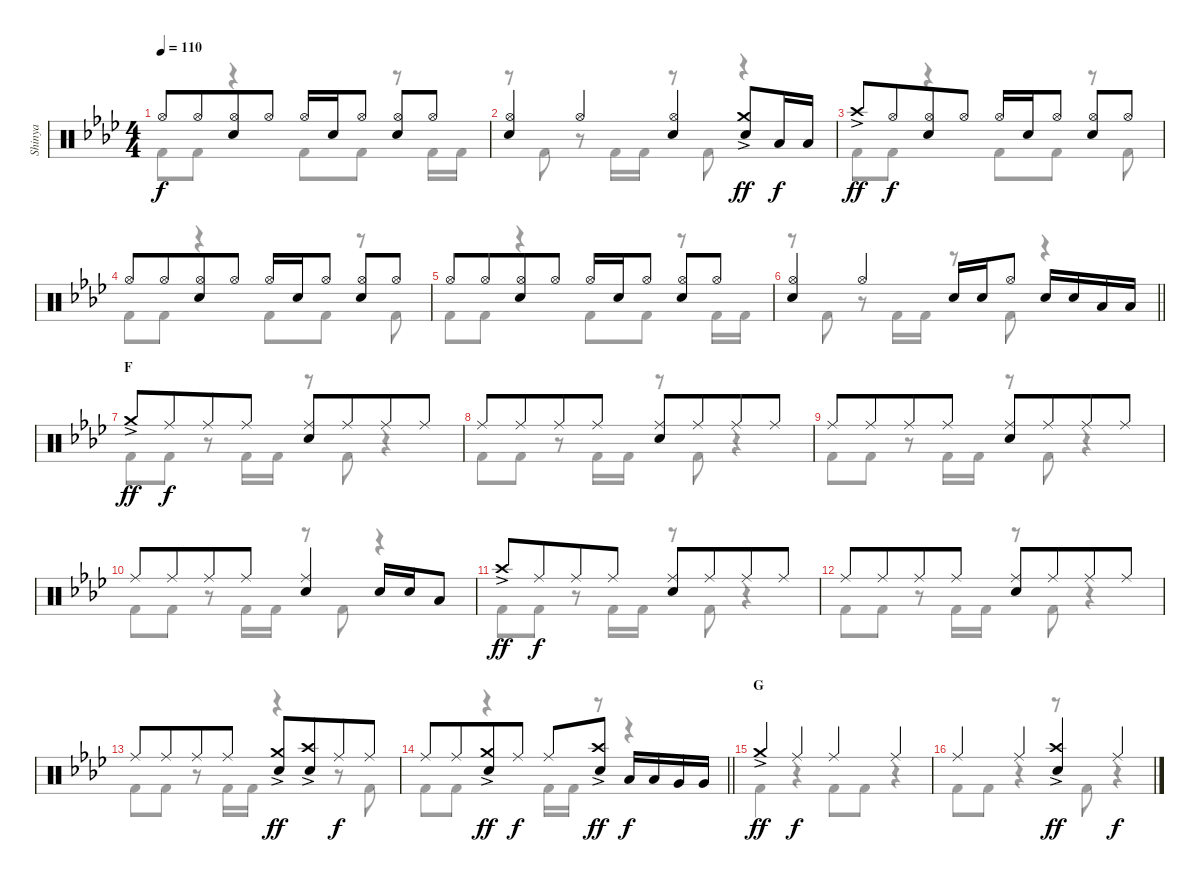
\track ("Shinya" "Shinya") {instrument percussion}
\staff {score}
\articulation defaults
\voice
\ts (4 4)
\tempo 110
\clef neutral
\ks fminor "Hi-Hat (open)".8{dy f} "Hi-Hat (open)".8{beam merge}
("Hi-Hat (open)" "Snare (hit) 2").8 "Hi-Hat (open)".8 "Hi-Hat (open)".16 "Snare (hit) 2".16 "Hi-Hat (open)".8 ("Hi-Hat (open)" "Snare (hit) 2").8 "Hi-Hat (open)".8 |
("Hi-Hat (open)" "Snare (hit) 2").4 "Hi-Hat (open)".4 ("Hi-Hat (open)" "Snare (hit) 2").4 ("Crash medium (hit)"{ac} "Snare (hit) 2").8{dy ff} "Low Tom (hit)".16{dy f} "Low Tom (hit)".16 |
"Crash high (hit)"{ac}.8{dy ff} "Hi-Hat (open)".8{dy f beam merge} ("Hi-Hat (open)" "Snare (hit) 2").8 "Hi-Hat (open)".8 "Hi-Hat (open)".16 "Snare (hit) 2".16 "Hi-Hat (open)".8 ("Hi-Hat (open)" "Snare (hit) 2").8 "Hi-Hat (open)".8 |
"Hi-Hat (open)".8 "Hi-Hat (open)".8{beam merge} ("Hi-Hat (open)" "Snare (hit) 2").8 "Hi-Hat (open)".8 "Hi-Hat (open)".16 "Snare (hit) 2".16 "Hi-Hat (open)".8 ("Hi-Hat (open)" "Snare (hit) 2").8 "Hi-Hat (open)".8 |
"Hi-Hat (open)".8 "Hi-Hat (open)".8{beam merge} ("Hi-Hat (open)" "Snare (hit) 2").8 "Hi-Hat (open)".8 "Hi-Hat (open)".16 "Snare (hit) 2".16 "Hi-Hat (open)".8 ("Hi-Hat (open)" "Snare (hit) 2").8 "Hi-Hat (open)".8 |
\barLineRight lightlight
("Hi-Hat (open)" "Snare (hit) 2").4 "Hi-Hat (open)".4 "Snare (hit) 2".16 "Snare (hit) 2".16 "Hi-Hat (open)".8 "Snare (hit) 2".16 "Snare (hit) 2".16 "Low Tom (hit)".16 "Low Tom (hit)".16 |
\section ("" "F")
"Crash medium (hit)"{ac}.8{dy ff} "Ride (middle)".8{dy f beam merge} "Ride (middle)".8 "Ride (middle)".8 ("Ride (middle)" "Snare (hit) 2").8 "Ride (middle)".8{beam merge} "Ride (middle)".8 "Ride (middle)".8 |
"Ride (middle)".8 "Ride (middle)".8{beam merge} "Ride (middle)".8 "Ride (middle)".8 ("Ride (middle)" "Snare (hit) 2").8 "Ride (middle)".8{beam merge} "Ride (middle)".8 "Ride (middle)".8 |
"Ride (middle)".8 "Ride (middle)".8{beam merge} "Ride (middle)".8 "Ride (middle)".8 ("Ride (middle)" "Snare (hit) 2").8 "Ride (middle)".8{beam merge} "Ride (middle)".8 "Ride (middle)".8 |
"Ride (middle)".8 "Ride (middle)".8{beam merge} "Ride (middle)".8 "Ride (middle)".8 ("Ride (middle)" "Snare (hit) 2").4 "Snare (hit) 2".16 "Snare (hit) 2".16 "Low Tom (hit)".8 |
"Crash high (hit)"{ac}.8{dy ff} "Ride (middle)".8{dy f beam merge} "Ride (middle)".8 "Ride (middle)".8 ("Ride (middle)" "Snare (hit) 2").8 "Ride (middle)".8{beam merge} "Ride (middle)".8 "Ride (middle)".8 |
"Ride (middle)".8 "Ride (middle)".8{beam merge} "Ride (middle)".8 "Ride (middle)".8 ("Ride (middle)" "Snare (hit) 2").8 "Ride (middle)".8{beam merge} "Ride (middle)".8 "Ride (middle)".8 |
"Ride (middle)".8 "Ride (middle)".8{beam merge} "Ride (middle)".8 "Ride (middle)".8 ("Crash medium (hit)"{ac} "Snare (hit) 2").8{dy ff} ("Crash high (hit)"{ac} "Snare (hit) 2").8{beam merge} "Ride (middle)".8{dy f} "Ride (middle)".8 |
\barLineRight lightlight "Ride (middle)".8 "Ride (middle)".8{beam merge}
("Crash medium (hit)"{ac} "Snare (hit) 2").8{dy ff} "Ride (middle)".8{dy f} "Ride (middle)".8 ("Crash high (hit)"{ac} "Snare (hit) 2").8{dy ff} "Low Tom (hit)".16{dy f} "Low Tom (hit)".16 "Very Low Tom (hit)".16 "Very Low Tom (hit)".16 |
\section ("" "G")
"Crash medium (hit)"{ac}.4{dy ff} "Ride (middle)".4{dy f} "Ride (middle)".4 "Ride (middle)".4 |
"Ride (middle)".4 "Ride (middle)".4 ("Crash high (hit)"{ac} "Snare (hit) 2").4{dy ff} "Ride (middle)".4{dy f}
\voice
\clef neutral
\ottava regular
\simile none
\ks fminor "Kick (hit) 2".8{dy f} "Kick (hit) 2".8
r.4 "Kick (hit) 2".8 "Kick (hit) 2".8 r.8 "Kick (hit) 2".16 "Kick (hit) 2".16 |
r.8 "Kick (hit) 2".8 r.8 "Kick (hit) 2".16 "Kick (hit) 2".16 r.8 "Kick (hit) 2".8 r.4 |
"Kick (hit) 2".8 "Kick (hit) 2".8 r.4 "Kick (hit) 2".8 "Kick (hit) 2".8 r.8 "Kick (hit) 2".8 |
"Kick (hit) 2".8 "Kick (hit) 2".8 r.4 "Kick (hit) 2".8 "Kick (hit) 2".8 r.8 "Kick (hit) 2".8 |
"Kick (hit) 2".8 "Kick (hit) 2".8 r.4 "Kick (hit) 2".8 "Kick (hit) 2".8 r.8 "Kick (hit) 2".16 "Kick (hit) 2".16 |
\barLineRight lightlight
r.8 "Kick (hit) 2".8 r.8 "Kick (hit) 2".16 "Kick (hit) 2".16 r.8 "Kick (hit) 2".8 r.4 |
"Kick (hit) 2".8 "Kick (hit) 2".8 r.8 "Kick (hit) 2".16 "Kick (hit) 2".16 r.8 "Kick (hit) 2".8 r.4 |
"Kick (hit) 2".8 "Kick (hit) 2".8 r.8 "Kick (hit) 2".16 "Kick (hit) 2".16 r.8 "Kick (hit) 2".8 r.4 |
"Kick (hit) 2".8 "Kick (hit) 2".8 r.8 "Kick (hit) 2".16 "Kick (hit) 2".16 r.8 "Kick (hit) 2".8 r.4 |
"Kick (hit) 2".8 "Kick (hit) 2".8 r.8 "Kick (hit) 2".16 "Kick (hit) 2".16 r.8 "Kick (hit) 2".8 r.4 |
"Kick (hit) 2".8 "Kick (hit) 2".8 r.8 "Kick (hit) 2".16 "Kick (hit) 2".16 r.8 "Kick (hit) 2".8 r.4 |
"Kick (hit) 2".8 "Kick (hit) 2".8 r.8 "Kick (hit) 2".16 "Kick (hit) 2".16 r.8 "Kick (hit) 2".8 r.4 |
"Kick (hit) 2".8 "Kick (hit) 2".8 r.8 "Kick (hit) 2".16 "Kick (hit) 2".16 r.4 r.8 "Kick (hit) 2".8 |
\barLineRight lightlight "Kick (hit) 2".8 "Kick (hit) 2".8
r.4 "Kick (hit) 2".16 "Kick (hit) 2".16 r.8 r.4 |
"Kick (hit) 2".4 r.4 "Kick (hit) 2".8 "Kick (hit) 2".8 r.4 |
"Kick (hit) 2".8 "Kick (hit) 2".8 r.4 r.8 "Kick (hit) 2".8 r.4
